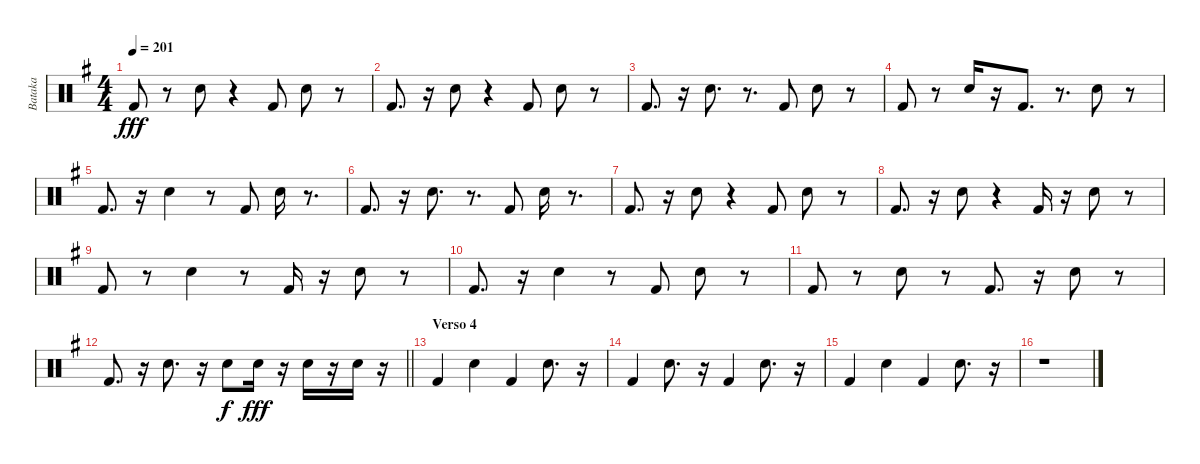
\track ("Bataka" "Bataka") {instrument percussion}
\staff {score}
\articulation defaults
\ts (4 4)
\tempo 201
\clef neutral
\ks g "Kick (hit) 2".8{dy fff}
r.8 "Electric Snare (hit)".8 r.4 "Kick (hit) 2".8 "Electric Snare (hit)".8 r.8 |
"Kick (hit) 2".8{d} r.16 "Electric Snare (hit)".8 r.4 "Kick (hit) 2".8 "Electric Snare (hit)".8 r.8 |
"Kick (hit) 2".8{d} r.16 "Electric Snare (hit)".8{d} r.8{d} "Kick (hit) 2".8 "Electric Snare (hit)".8 r.8 |
"Kick (hit) 2".8 r.8 "Electric Snare (hit)".16 r.16 "Kick (hit) 2".8{d} r.8{d} "Electric Snare (hit)".8 r.8 |
"Kick (hit) 2".8{d} r.16 "Electric Snare (hit)".4 r.8 "Kick (hit) 2".8 "Electric Snare (hit)".16 r.8{d} |
"Kick (hit) 2".8{d} r.16 "Electric Snare (hit)".8{d} r.8{d} "Kick (hit) 2".8 "Electric Snare (hit)".16 r.8{d} |
"Kick (hit) 2".8{d} r.16 "Electric Snare (hit)".8 r.4 "Kick (hit) 2".8 "Electric Snare (hit)".8 r.8 |
"Kick (hit) 2".8{d} r.16 "Electric Snare (hit)".8 r.4 "Kick (hit) 2".16 r.16 "Electric Snare (hit)".8 r.8 |
"Kick (hit) 2".8 r.8 "Electric Snare (hit)".4 r.8 "Kick (hit) 2".16 r.16 "Electric Snare (hit)".8 r.8 |
"Kick (hit) 2".8{d} r.16 "Electric Snare (hit)".4 r.8 "Kick (hit) 2".8 "Electric Snare (hit)".8 r.8 |
"Kick (hit) 2".8 r.8 "Electric Snare (hit)".8 r.8 "Kick (hit) 2".8{d} r.16 "Electric Snare (hit)".8 r.8 |
\barLineRight lightlight "Kick (hit) 2".8{d}
r.16 "Electric Snare (hit)".8{d} r.16 "Electric Snare (hit)".8{dy f} "Electric Snare (hit)".16{dy fff} r.16 "Electric Snare (hit)".16 r.16 "Electric Snare (hit)".16 r.16 |
\section ("" "Verso 4")
"Kick (hit) 2".4 "Electric Snare (hit)".4 "Kick (hit) 2".4 "Electric Snare (hit)".8{d} r.16 |
"Kick (hit) 2".4 "Electric Snare (hit)".8{d} r.16 "Kick (hit) 2".4 "Electric Snare (hit)".8{d} r.16 |
"Kick (hit) 2".4 "Electric Snare (hit)".4 "Kick (hit) 2".4 "Electric Snare (hit)".8{d} r.16 |
r.1
